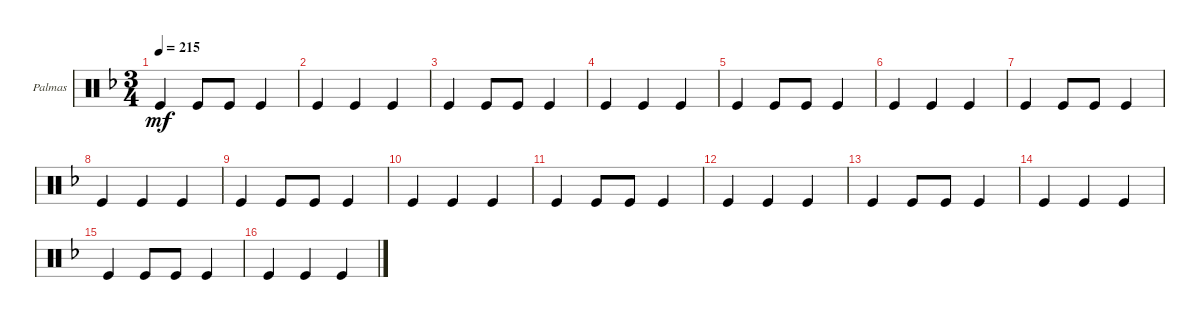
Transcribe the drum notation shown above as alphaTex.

\defaultSystemsLayout 4
\bracketExtendMode groupsimilarinstruments
\firstSystemTrackNameOrientation horizontal
\otherSystemsTrackNameOrientation horizontal
\track ("Palmas" "Palmas") {instrument percussion}
\staff {score}
\articulation defaults
\ts (3 4)
\tempo 215
\clef neutral
\ks f "Kick (hit)".4{dy mf} "Kick (hit)".8 "Kick (hit)".8 "Kick (hit)".4
|
"Kick (hit)".4 "Kick (hit)".4 "Kick (hit)".4 |
"Kick (hit)".4 "Kick (hit)".8 "Kick (hit)".8 "Kick (hit)".4 |
"Kick (hit)".4 "Kick (hit)".4 "Kick (hit)".4 |
"Kick (hit)".4 "Kick (hit)".8 "Kick (hit)".8 "Kick (hit)".4 |
"Kick (hit)".4 "Kick (hit)".4 "Kick (hit)".4 |
"Kick (hit)".4 "Kick (hit)".8 "Kick (hit)".8 "Kick (hit)".4 |
"Kick (hit)".4 "Kick (hit)".4 "Kick (hit)".4 |
"Kick (hit)".4 "Kick (hit)".8 "Kick (hit)".8 "Kick (hit)".4 |
"Kick (hit)".4 "Kick (hit)".4 "Kick (hit)".4 |
"Kick (hit)".4 "Kick (hit)".8 "Kick (hit)".8 "Kick (hit)".4 |
"Kick (hit)".4 "Kick (hit)".4 "Kick (hit)".4 |
"Kick (hit)".4 "Kick (hit)".8 "Kick (hit)".8 "Kick (hit)".4 |
"Kick (hit)".4 "Kick (hit)".4 "Kick (hit)".4 |
"Kick (hit)".4 "Kick (hit)".8 "Kick (hit)".8 "Kick (hit)".4 |
"Kick (hit)".4 "Kick (hit)".4 "Kick (hit)".4
